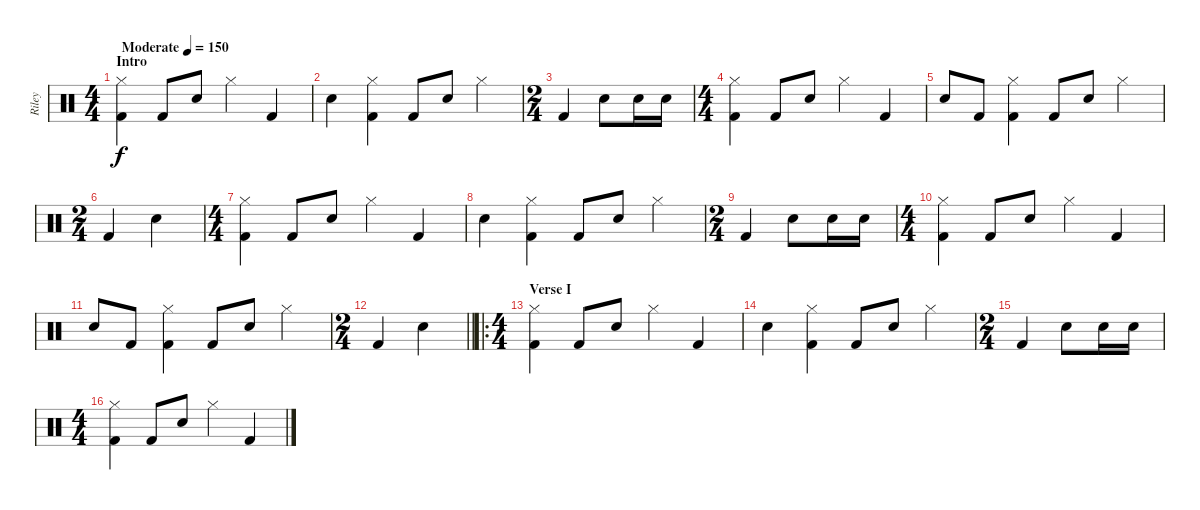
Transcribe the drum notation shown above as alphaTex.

\track ("Riley" "Riley") {instrument percussion}
\staff {score}
\articulation defaults
\ts (4 4)
\section ("" "Intro")
\tempo (150 "Moderate")
\clef neutral
\ks c
("Hi-Hat (closed)" "Kick (hit) 2").4{dy f} "Kick (hit) 2".8 "Electric Snare (hit)".8 "Hi-Hat (closed)".4 "Kick (hit) 2".4 |
"Electric Snare (hit)".4 ("Hi-Hat (closed)" "Kick (hit) 2").4 "Kick (hit) 2".8 "Electric Snare (hit)".8 "Hi-Hat (closed)".4 |
\ts (2 4)
"Kick (hit) 2".4 "Electric Snare (hit)".8 "Electric Snare (hit)".16 "Electric Snare (hit)".16 |
\ts (4 4)
("Hi-Hat (closed)" "Kick (hit) 2").4 "Kick (hit) 2".8 "Electric Snare (hit)".8 "Hi-Hat (closed)".4 "Kick (hit) 2".4 |
"Electric Snare (hit)".8 "Kick (hit) 2".8 ("Hi-Hat (closed)" "Kick (hit) 2").4 "Kick (hit) 2".8 "Electric Snare (hit)".8 "Hi-Hat (closed)".4 |
\ts (2 4)
"Kick (hit) 2".4 "Electric Snare (hit)".4 |
\ts (4 4)
("Hi-Hat (closed)" "Kick (hit) 2").4 "Kick (hit) 2".8 "Electric Snare (hit)".8 "Hi-Hat (closed)".4 "Kick (hit) 2".4 |
"Electric Snare (hit)".4 ("Hi-Hat (closed)" "Kick (hit) 2").4 "Kick (hit) 2".8 "Electric Snare (hit)".8 "Hi-Hat (closed)".4 |
\ts (2 4)
"Kick (hit) 2".4 "Electric Snare (hit)".8 "Electric Snare (hit)".16 "Electric Snare (hit)".16 |
\ts (4 4)
("Hi-Hat (closed)" "Kick (hit) 2").4 "Kick (hit) 2".8 "Electric Snare (hit)".8 "Hi-Hat (closed)".4 "Kick (hit) 2".4 |
"Electric Snare (hit)".8 "Kick (hit) 2".8 ("Hi-Hat (closed)" "Kick (hit) 2").4 "Kick (hit) 2".8 "Electric Snare (hit)".8 "Hi-Hat (closed)".4 |
\ts (2 4)
\barLineRight lightlight "Kick (hit) 2".4 "Electric Snare (hit)".4
|
\ro
\ts (4 4)
\section ("" "Verse I")
("Hi-Hat (closed)" "Kick (hit) 2").4 "Kick (hit) 2".8 "Electric Snare (hit)".8 "Hi-Hat (closed)".4 "Kick (hit) 2".4 |
"Electric Snare (hit)".4 ("Hi-Hat (closed)" "Kick (hit) 2").4 "Kick (hit) 2".8 "Electric Snare (hit)".8 "Hi-Hat (closed)".4 |
\ts (2 4)
"Kick (hit) 2".4 "Electric Snare (hit)".8 "Electric Snare (hit)".16 "Electric Snare (hit)".16 |
\ts (4 4)
("Hi-Hat (closed)" "Kick (hit) 2").4 "Kick (hit) 2".8 "Electric Snare (hit)".8 "Hi-Hat (closed)".4 "Kick (hit) 2".4
